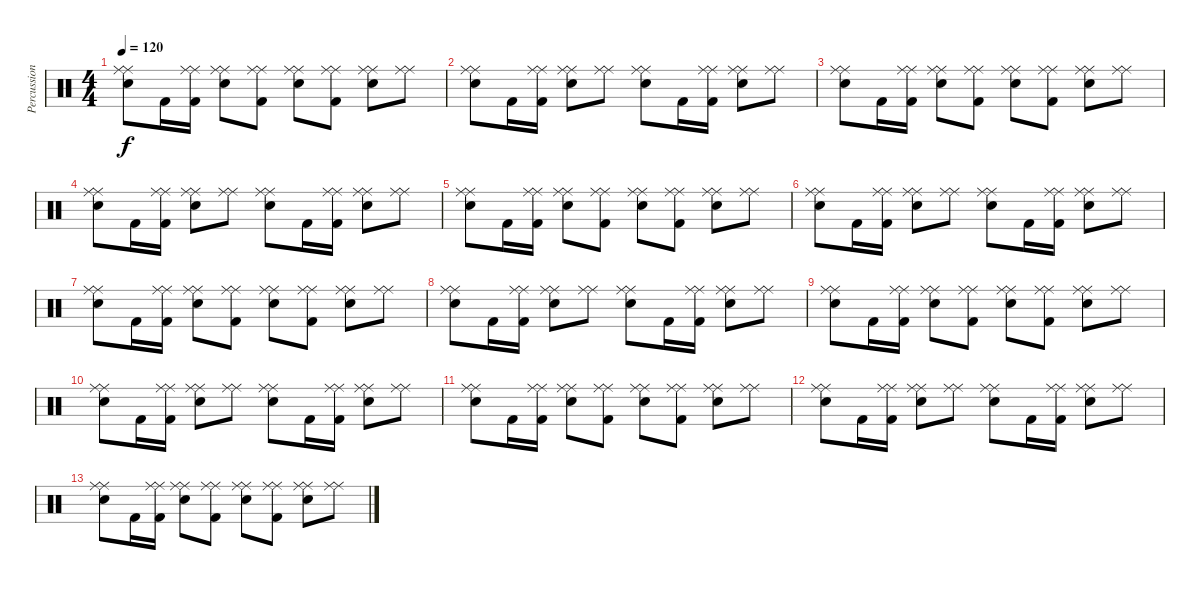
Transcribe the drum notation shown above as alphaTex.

\track ("Percussions" "Percussion") {instrument percussion}
\staff {score}
\articulation defaults
\ts (4 4)
\tempo 120
\clef neutral
\ks c
("Ride (middle)" "Ride (middle)" "Electric Snare (hit)").8{dy f} "Kick (hit) 2".16 ("Ride (middle)" "Ride (middle)" "Kick (hit) 2").16 ("Ride (middle)" "Ride (middle)" "Electric Snare (hit)").8 ("Ride (middle)" "Ride (middle)" "Kick (hit) 2").8 ("Ride (middle)" "Ride (middle)" "Electric Snare (hit)").8 ("Ride (middle)" "Ride (middle)" "Kick (hit) 2").8 ("Ride (middle)" "Ride (middle)" "Electric Snare (hit)").8 ("Ride (middle)" "Ride (middle)").8 |
("Ride (middle)" "Ride (middle)" "Electric Snare (hit)").8 "Kick (hit) 2".16 ("Ride (middle)" "Ride (middle)" "Kick (hit) 2").16 ("Ride (middle)" "Ride (middle)" "Electric Snare (hit)").8 ("Ride (middle)" "Ride (middle)").8 ("Ride (middle)" "Ride (middle)" "Electric Snare (hit)").8 "Kick (hit) 2".16 ("Ride (middle)" "Ride (middle)" "Kick (hit) 2").16 ("Ride (middle)" "Ride (middle)" "Electric Snare (hit)").8 ("Ride (middle)" "Ride (middle)").8 |
("Ride (middle)" "Ride (middle)" "Electric Snare (hit)").8 "Kick (hit) 2".16 ("Ride (middle)" "Ride (middle)" "Kick (hit) 2").16 ("Ride (middle)" "Ride (middle)" "Electric Snare (hit)").8 ("Ride (middle)" "Ride (middle)" "Kick (hit) 2").8 ("Ride (middle)" "Ride (middle)" "Electric Snare (hit)").8 ("Ride (middle)" "Ride (middle)" "Kick (hit) 2").8 ("Ride (middle)" "Ride (middle)" "Electric Snare (hit)").8 ("Ride (middle)" "Ride (middle)").8 |
("Ride (middle)" "Ride (middle)" "Electric Snare (hit)").8 "Kick (hit) 2".16 ("Ride (middle)" "Ride (middle)" "Kick (hit) 2").16 ("Ride (middle)" "Ride (middle)" "Electric Snare (hit)").8 ("Ride (middle)" "Ride (middle)").8 ("Ride (middle)" "Ride (middle)" "Electric Snare (hit)").8 "Kick (hit) 2".16 ("Ride (middle)" "Ride (middle)" "Kick (hit) 2").16 ("Ride (middle)" "Ride (middle)" "Electric Snare (hit)").8 ("Ride (middle)" "Ride (middle)").8 |
("Ride (middle)" "Ride (middle)" "Electric Snare (hit)").8 "Kick (hit) 2".16 ("Ride (middle)" "Ride (middle)" "Kick (hit) 2").16 ("Ride (middle)" "Ride (middle)" "Electric Snare (hit)").8 ("Ride (middle)" "Ride (middle)" "Kick (hit) 2").8 ("Ride (middle)" "Ride (middle)" "Electric Snare (hit)").8 ("Ride (middle)" "Ride (middle)" "Kick (hit) 2").8 ("Ride (middle)" "Ride (middle)" "Electric Snare (hit)").8 ("Ride (middle)" "Ride (middle)").8 |
("Ride (middle)" "Ride (middle)" "Electric Snare (hit)").8 "Kick (hit) 2".16 ("Ride (middle)" "Ride (middle)" "Kick (hit) 2").16 ("Ride (middle)" "Ride (middle)" "Electric Snare (hit)").8 ("Ride (middle)" "Ride (middle)").8 ("Ride (middle)" "Ride (middle)" "Electric Snare (hit)").8 "Kick (hit) 2".16 ("Ride (middle)" "Ride (middle)" "Kick (hit) 2").16 ("Ride (middle)" "Ride (middle)" "Electric Snare (hit)").8 ("Ride (middle)" "Ride (middle)").8 |
("Ride (middle)" "Ride (middle)" "Electric Snare (hit)").8 "Kick (hit) 2".16 ("Ride (middle)" "Ride (middle)" "Kick (hit) 2").16 ("Ride (middle)" "Ride (middle)" "Electric Snare (hit)").8 ("Ride (middle)" "Ride (middle)" "Kick (hit) 2").8 ("Ride (middle)" "Ride (middle)" "Electric Snare (hit)").8 ("Ride (middle)" "Ride (middle)" "Kick (hit) 2").8 ("Ride (middle)" "Ride (middle)" "Electric Snare (hit)").8 ("Ride (middle)" "Ride (middle)").8 |
("Ride (middle)" "Ride (middle)" "Electric Snare (hit)").8{volume 10} "Kick (hit) 2".16 ("Ride (middle)" "Ride (middle)" "Kick (hit) 2").16 ("Ride (middle)" "Ride (middle)" "Electric Snare (hit)").8 ("Ride (middle)" "Ride (middle)").8 ("Ride (middle)" "Ride (middle)" "Electric Snare (hit)").8 "Kick (hit) 2".16 ("Ride (middle)" "Ride (middle)" "Kick (hit) 2").16 ("Ride (middle)" "Ride (middle)" "Electric Snare (hit)").8 ("Ride (middle)" "Ride (middle)").8 |
("Ride (middle)" "Ride (middle)" "Electric Snare (hit)").8 "Kick (hit) 2".16 ("Ride (middle)" "Ride (middle)" "Kick (hit) 2").16 ("Ride (middle)" "Ride (middle)" "Electric Snare (hit)").8 ("Ride (middle)" "Ride (middle)" "Kick (hit) 2").8 ("Ride (middle)" "Ride (middle)" "Electric Snare (hit)").8 ("Ride (middle)" "Ride (middle)" "Kick (hit) 2").8 ("Ride (middle)" "Ride (middle)" "Electric Snare (hit)").8 ("Ride (middle)" "Ride (middle)").8 |
("Ride (middle)" "Ride (middle)" "Electric Snare (hit)").8{volume 4} "Kick (hit) 2".16 ("Ride (middle)" "Ride (middle)" "Kick (hit) 2").16 ("Ride (middle)" "Ride (middle)" "Electric Snare (hit)").8 ("Ride (middle)" "Ride (middle)").8 ("Ride (middle)" "Ride (middle)" "Electric Snare (hit)").8 "Kick (hit) 2".16 ("Ride (middle)" "Ride (middle)" "Kick (hit) 2").16 ("Ride (middle)" "Ride (middle)" "Electric Snare (hit)").8 ("Ride (middle)" "Ride (middle)").8 |
("Ride (middle)" "Ride (middle)" "Electric Snare (hit)").8 "Kick (hit) 2".16 ("Ride (middle)" "Ride (middle)" "Kick (hit) 2").16 ("Ride (middle)" "Ride (middle)" "Electric Snare (hit)").8 ("Ride (middle)" "Ride (middle)" "Kick (hit) 2").8 ("Ride (middle)" "Ride (middle)" "Electric Snare (hit)").8 ("Ride (middle)" "Ride (middle)" "Kick (hit) 2").8 ("Ride (middle)" "Ride (middle)" "Electric Snare (hit)").8 ("Ride (middle)" "Ride (middle)").8 |
("Ride (middle)" "Ride (middle)" "Electric Snare (hit)").8{volume 0} "Kick (hit) 2".16 ("Ride (middle)" "Ride (middle)" "Kick (hit) 2").16 ("Ride (middle)" "Ride (middle)" "Electric Snare (hit)").8 ("Ride (middle)" "Ride (middle)").8 ("Ride (middle)" "Ride (middle)" "Electric Snare (hit)").8 "Kick (hit) 2".16 ("Ride (middle)" "Ride (middle)" "Kick (hit) 2").16 ("Ride (middle)" "Ride (middle)" "Electric Snare (hit)").8 ("Ride (middle)" "Ride (middle)").8 |
("Ride (middle)" "Ride (middle)" "Electric Snare (hit)").8 "Kick (hit) 2".16 ("Ride (middle)" "Ride (middle)" "Kick (hit) 2").16 ("Ride (middle)" "Ride (middle)" "Electric Snare (hit)").8 ("Ride (middle)" "Ride (middle)" "Kick (hit) 2").8 ("Ride (middle)" "Ride (middle)" "Electric Snare (hit)").8 ("Ride (middle)" "Ride (middle)" "Kick (hit) 2").8 ("Ride (middle)" "Ride (middle)" "Electric Snare (hit)").8 ("Ride (middle)" "Ride (middle)").8
